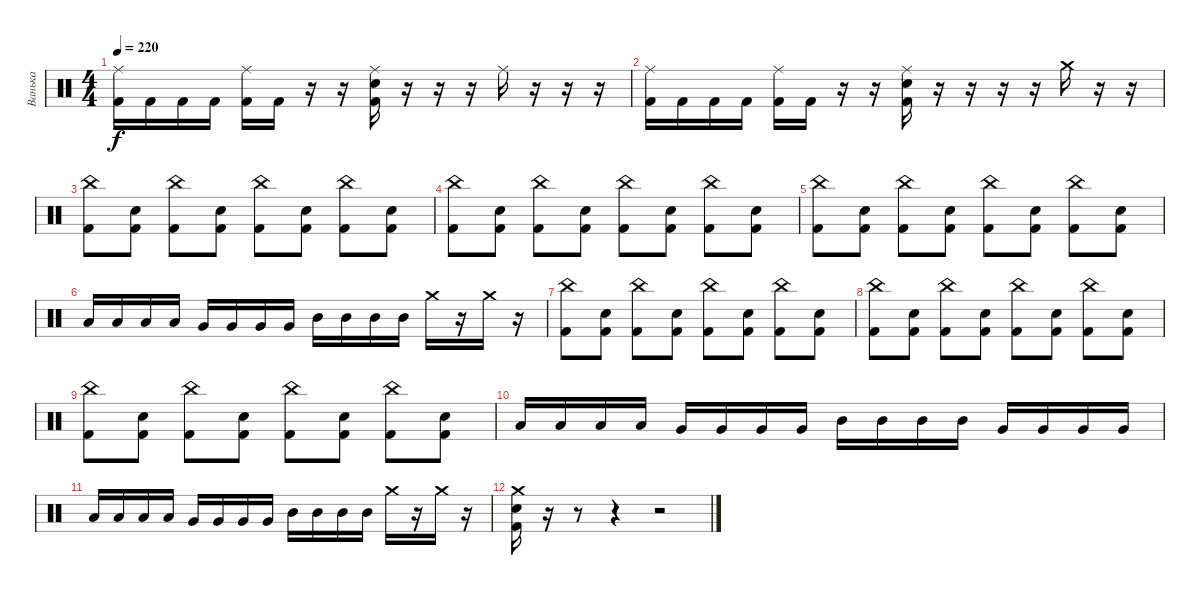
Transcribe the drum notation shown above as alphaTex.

\track ("Ванька" "Ванька") {instrument percussion}
\staff {score}
\articulation defaults
\ts (4 4)
\tempo 220
\clef neutral
\ks c
("Ride (middle)" "Kick (hit) 2").16{dy f} "Kick (hit) 2".16 "Kick (hit) 2".16 "Kick (hit) 2".16 ("Ride (middle)" "Kick (hit) 2").16 "Kick (hit) 2".16 r.16 r.16 ("Ride (middle)" "Snare (hit) 2" "Kick (hit) 2").16 r.16 r.16 r.16 "Ride (middle)".16 r.16 r.16 r.16 |
("Ride (middle)" "Kick (hit) 2").16 "Kick (hit) 2".16 "Kick (hit) 2".16 "Kick (hit) 2".16 ("Ride (middle)" "Kick (hit) 2").16 "Kick (hit) 2".16 r.16 r.16 ("Ride (middle)" "Snare (hit) 2" "Kick (hit) 2").16 r.16 r.16 r.16 r.16 "Crash medium (hit)".16 r.16 r.16 |
("China (hit)" "Kick (hit) 2").8 ("Snare (hit) 2" "Kick (hit) 2").8 ("China (hit)" "Kick (hit) 2").8 ("Snare (hit) 2" "Kick (hit) 2").8 ("China (hit)" "Kick (hit) 2").8 ("Snare (hit) 2" "Kick (hit) 2").8 ("China (hit)" "Kick (hit) 2").8 ("Snare (hit) 2" "Kick (hit) 2").8 |
("China (hit)" "Kick (hit) 2").8 ("Snare (hit) 2" "Kick (hit) 2").8 ("China (hit)" "Kick (hit) 2").8 ("Snare (hit) 2" "Kick (hit) 2").8 ("China (hit)" "Kick (hit) 2").8 ("Snare (hit) 2" "Kick (hit) 2").8 ("China (hit)" "Kick (hit) 2").8 ("Snare (hit) 2" "Kick (hit) 2").8 |
("China (hit)" "Kick (hit) 2").8 ("Snare (hit) 2" "Kick (hit) 2").8 ("China (hit)" "Kick (hit) 2").8 ("Snare (hit) 2" "Kick (hit) 2").8 ("China (hit)" "Kick (hit) 2").8 ("Snare (hit) 2" "Kick (hit) 2").8 ("China (hit)" "Kick (hit) 2").8 ("Snare (hit) 2" "Kick (hit) 2").8 |
"Low Floor Tom (hit)".16 "Low Floor Tom (hit)".16 "Low Floor Tom (hit)".16 "Low Floor Tom (hit)".16 "Very Low Tom (hit)".16 "Very Low Tom (hit)".16 "Very Low Tom (hit)".16 "Very Low Tom (hit)".16 "Mid Tom (hit)".16 "Mid Tom (hit)".16 "Mid Tom (hit)".16 "Mid Tom (hit)".16 "Crash medium (hit)".16 r.16 "Crash medium (hit)".16 r.16 |
("China (hit)" "Kick (hit) 2").8 ("Snare (hit) 2" "Kick (hit) 2").8 ("China (hit)" "Kick (hit) 2").8 ("Snare (hit) 2" "Kick (hit) 2").8 ("China (hit)" "Kick (hit) 2").8 ("Snare (hit) 2" "Kick (hit) 2").8 ("China (hit)" "Kick (hit) 2").8 ("Snare (hit) 2" "Kick (hit) 2").8 |
("China (hit)" "Kick (hit) 2").8 ("Snare (hit) 2" "Kick (hit) 2").8 ("China (hit)" "Kick (hit) 2").8 ("Snare (hit) 2" "Kick (hit) 2").8 ("China (hit)" "Kick (hit) 2").8 ("Snare (hit) 2" "Kick (hit) 2").8 ("China (hit)" "Kick (hit) 2").8 ("Snare (hit) 2" "Kick (hit) 2").8 |
("China (hit)" "Kick (hit) 2").8 ("Snare (hit) 2" "Kick (hit) 2").8 ("China (hit)" "Kick (hit) 2").8 ("Snare (hit) 2" "Kick (hit) 2").8 ("China (hit)" "Kick (hit) 2").8 ("Snare (hit) 2" "Kick (hit) 2").8 ("China (hit)" "Kick (hit) 2").8 ("Snare (hit) 2" "Kick (hit) 2").8 |
"Low Floor Tom (hit)".16 "Low Floor Tom (hit)".16 "Low Floor Tom (hit)".16 "Low Floor Tom (hit)".16 "Very Low Tom (hit)".16 "Very Low Tom (hit)".16 "Very Low Tom (hit)".16 "Very Low Tom (hit)".16 "Mid Tom (hit)".16 "Mid Tom (hit)".16 "Mid Tom (hit)".16 "Mid Tom (hit)".16 "Very Low Tom (hit)".16 "Very Low Tom (hit)".16 "Very Low Tom (hit)".16 "Very Low Tom (hit)".16 |
"Low Floor Tom (hit)".16 "Low Floor Tom (hit)".16 "Low Floor Tom (hit)".16 "Low Floor Tom (hit)".16 "Very Low Tom (hit)".16 "Very Low Tom (hit)".16 "Very Low Tom (hit)".16 "Very Low Tom (hit)".16 "Mid Tom (hit)".16 "Mid Tom (hit)".16 "Mid Tom (hit)".16 "Mid Tom (hit)".16 "Crash medium (hit)".16 r.16 "Crash medium (hit)".16 r.16 |
("Crash medium (hit)" "Snare (hit) 2" "Kick (hit) 2").16 r.16 r.8 r.4 r.2
